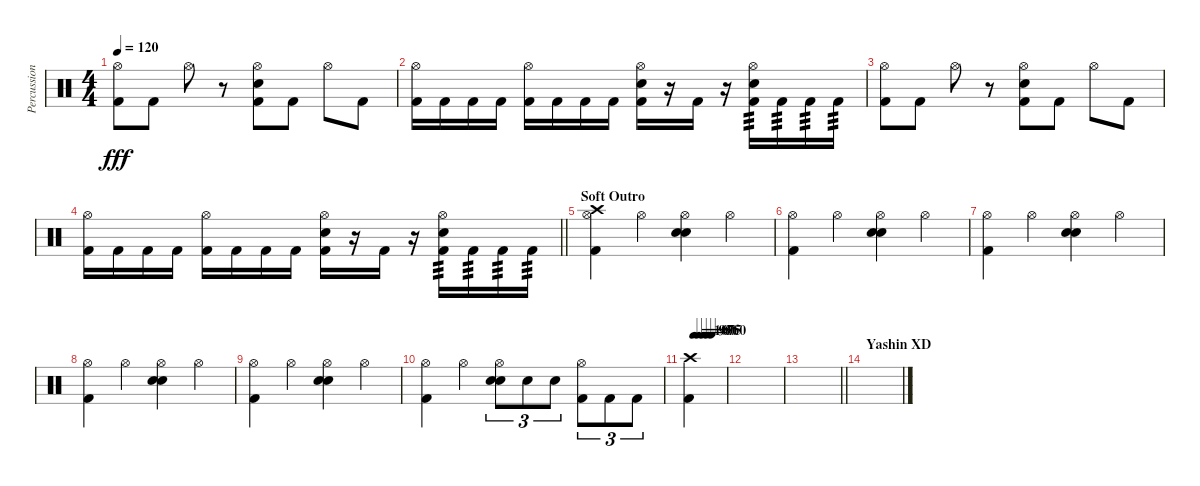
\track ("Percussion" "Percussion") {instrument percussion}
\staff {score}
\articulation defaults
\ts (4 4)
\tempo 120
\clef neutral
\ks c
("Hi-Hat (open)" "Kick (hit) 2").8{dy fff} "Kick (hit) 2".8 "Hi-Hat (open)".8 r.8 ("Hi-Hat (open)" "Snare (hit) 2" "Kick (hit) 2").8 "Kick (hit) 2".8 "Hi-Hat (open)".8 "Kick (hit) 2".8 |
("Hi-Hat (open)" "Kick (hit) 2").16 "Kick (hit) 2".16 "Kick (hit) 2".16 "Kick (hit) 2".16 ("Hi-Hat (open)" "Kick (hit) 2").16 "Kick (hit) 2".16 "Kick (hit) 2".16 "Kick (hit) 2".16 ("Hi-Hat (open)" "Snare (hit) 2" "Kick (hit) 2").16 r.16 "Kick (hit) 2".16 r.16 ("Hi-Hat (open)" "Snare (hit) 2" "Kick (hit) 2").16{tp 3} "Kick (hit) 2".16{tp 3} "Kick (hit) 2".16{tp 3} "Kick (hit) 2".16{tp 3} |
("Hi-Hat (open)" "Kick (hit) 2").8 "Kick (hit) 2".8 "Hi-Hat (open)".8 r.8 ("Hi-Hat (open)" "Snare (hit) 2" "Kick (hit) 2").8 "Kick (hit) 2".8 "Hi-Hat (open)".8 "Kick (hit) 2".8 |
\barLineRight lightlight
("Hi-Hat (open)" "Kick (hit) 2").16 "Kick (hit) 2".16 "Kick (hit) 2".16 "Kick (hit) 2".16 ("Hi-Hat (open)" "Kick (hit) 2").16 "Kick (hit) 2".16 "Kick (hit) 2".16 "Kick (hit) 2".16 ("Hi-Hat (open)" "Snare (hit) 2" "Kick (hit) 2").16 r.16 "Kick (hit) 2".16 r.16 ("Hi-Hat (open)" "Snare (hit) 2" "Kick (hit) 2").16{tp 3} "Kick (hit) 2".16{tp 3} "Kick (hit) 2".16{tp 3} "Kick (hit) 2".16{tp 3} |
\section ("" "Soft Outro")
("Crash high (hit)" "Hi-Hat (open)" "Kick (hit) 2").4 "Hi-Hat (open)".4 ("Hi-Hat (open)" "Snare (hit) 2" "Electric Snare (hit)").4 "Hi-Hat (open)".4 |
("Hi-Hat (open)" "Kick (hit) 2").4 "Hi-Hat (open)".4 ("Hi-Hat (open)" "Snare (hit) 2" "Electric Snare (hit)").4 "Hi-Hat (open)".4 |
("Hi-Hat (open)" "Kick (hit) 2").4 "Hi-Hat (open)".4 ("Hi-Hat (open)" "Snare (hit) 2" "Electric Snare (hit)").4 "Hi-Hat (open)".4 |
("Hi-Hat (open)" "Kick (hit) 2").4 "Hi-Hat (open)".4 ("Hi-Hat (open)" "Snare (hit) 2" "Electric Snare (hit)").4 "Hi-Hat (open)".4 |
("Hi-Hat (open)" "Kick (hit) 2").4 "Hi-Hat (open)".4 ("Hi-Hat (open)" "Snare (hit) 2" "Electric Snare (hit)").4 "Hi-Hat (open)".4 |
("Hi-Hat (open)" "Kick (hit) 2").4 "Hi-Hat (open)".4 ("Hi-Hat (open)" "Snare (hit) 2" "Electric Snare (hit)").8{tu (3 2)} "Snare (hit) 2".8{tu (3 2)} "Snare (hit) 2".8{tu (3 2)} ("Hi-Hat (open)" "Kick (hit) 2").8{tu (3 2)} "Kick (hit) 2".8{tu (3 2)} "Kick (hit) 2".8{tu (3 2)} |
\tempo (100 0.125)
\tempo (95 0.25)
\tempo (80 0.375)
\tempo (75 0.5)
\tempo (60 0.625)
("Crash high (hit)" "Kick (hit) 2").4 |
|
\barLineRight lightlight
|
\section ("" "Yashin XD")
